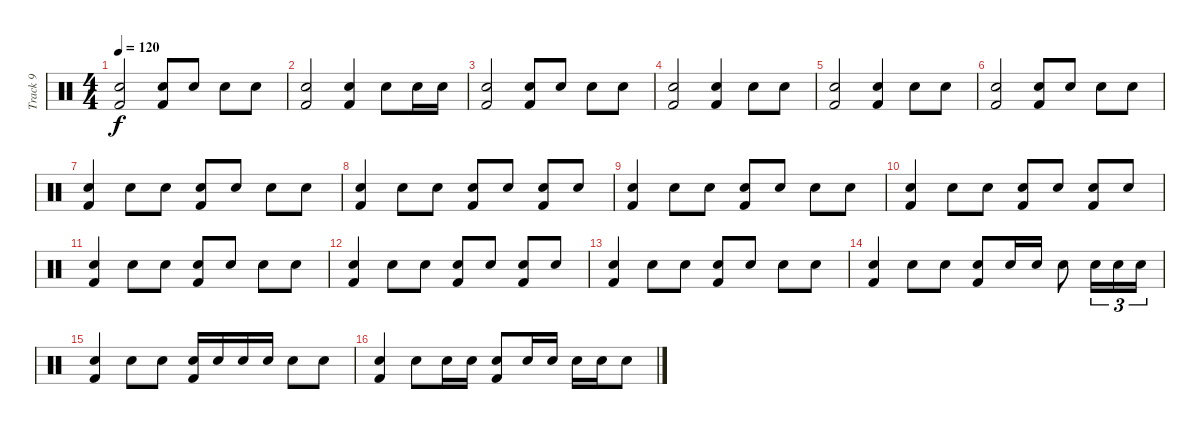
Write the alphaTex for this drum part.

\track ("Track 9" "Track 9") {instrument percussion}
\staff {score}
\articulation defaults
\ts (4 4)
\tempo 120
\clef neutral
\ks c
("Electric Snare (hit)" "Kick (hit) 2").2{dy f} ("Electric Snare (hit)" "Kick (hit) 2").8 "Electric Snare (hit)".8 "Electric Snare (hit)".8 "Electric Snare (hit)".8 |
("Electric Snare (hit)" "Kick (hit) 2").2 ("Electric Snare (hit)" "Kick (hit) 2").4 "Electric Snare (hit)".8 "Electric Snare (hit)".16 "Electric Snare (hit)".16 |
("Electric Snare (hit)" "Kick (hit) 2").2 ("Electric Snare (hit)" "Kick (hit) 2").8 "Electric Snare (hit)".8 "Electric Snare (hit)".8 "Electric Snare (hit)".8 |
("Electric Snare (hit)" "Kick (hit) 2").2 ("Electric Snare (hit)" "Kick (hit) 2").4 "Electric Snare (hit)".8 "Electric Snare (hit)".8 |
("Electric Snare (hit)" "Kick (hit) 2").2 ("Electric Snare (hit)" "Kick (hit) 2").4 "Electric Snare (hit)".8 "Electric Snare (hit)".8 |
("Electric Snare (hit)" "Kick (hit) 2").2 ("Electric Snare (hit)" "Kick (hit) 2").8 "Electric Snare (hit)".8 "Electric Snare (hit)".8 "Electric Snare (hit)".8 |
("Electric Snare (hit)" "Kick (hit) 2").4 "Electric Snare (hit)".8 "Electric Snare (hit)".8 ("Electric Snare (hit)" "Kick (hit) 2").8 "Electric Snare (hit)".8 "Electric Snare (hit)".8 "Electric Snare (hit)".8 |
("Electric Snare (hit)" "Kick (hit) 2").4 "Electric Snare (hit)".8 "Electric Snare (hit)".8 ("Electric Snare (hit)" "Kick (hit) 2").8 "Electric Snare (hit)".8 ("Electric Snare (hit)" "Kick (hit) 2").8 "Electric Snare (hit)".8 |
("Electric Snare (hit)" "Kick (hit) 2").4 "Electric Snare (hit)".8 "Electric Snare (hit)".8 ("Electric Snare (hit)" "Kick (hit) 2").8 "Electric Snare (hit)".8 "Electric Snare (hit)".8 "Electric Snare (hit)".8 |
("Electric Snare (hit)" "Kick (hit) 2").4 "Electric Snare (hit)".8 "Electric Snare (hit)".8 ("Electric Snare (hit)" "Kick (hit) 2").8 "Electric Snare (hit)".8 ("Electric Snare (hit)" "Kick (hit) 2").8 "Electric Snare (hit)".8 |
("Electric Snare (hit)" "Kick (hit) 2").4 "Electric Snare (hit)".8 "Electric Snare (hit)".8 ("Electric Snare (hit)" "Kick (hit) 2").8 "Electric Snare (hit)".8 "Electric Snare (hit)".8 "Electric Snare (hit)".8 |
("Electric Snare (hit)" "Kick (hit) 2").4 "Electric Snare (hit)".8 "Electric Snare (hit)".8 ("Electric Snare (hit)" "Kick (hit) 2").8 "Electric Snare (hit)".8 ("Electric Snare (hit)" "Kick (hit) 2").8 "Electric Snare (hit)".8 |
("Electric Snare (hit)" "Kick (hit) 2").4 "Electric Snare (hit)".8 "Electric Snare (hit)".8 ("Electric Snare (hit)" "Kick (hit) 2").8 "Electric Snare (hit)".8 "Electric Snare (hit)".8 "Electric Snare (hit)".8 |
("Electric Snare (hit)" "Kick (hit) 2").4 "Electric Snare (hit)".8 "Electric Snare (hit)".8 ("Electric Snare (hit)" "Kick (hit) 2").8 "Electric Snare (hit)".16 "Electric Snare (hit)".16 "Electric Snare (hit)".8 "Electric Snare (hit)".16{tu (3 2)} "Electric Snare (hit)".16{tu (3 2)} "Electric Snare (hit)".16{tu (3 2)} |
("Electric Snare (hit)" "Kick (hit) 2").4 "Electric Snare (hit)".8 "Electric Snare (hit)".8 ("Electric Snare (hit)" "Kick (hit) 2").16 "Electric Snare (hit)".16 "Electric Snare (hit)".16 "Electric Snare (hit)".16 "Electric Snare (hit)".8 "Electric Snare (hit)".8 |
("Electric Snare (hit)" "Kick (hit) 2").4 "Electric Snare (hit)".8 "Electric Snare (hit)".16 "Electric Snare (hit)".16 ("Electric Snare (hit)" "Kick (hit) 2").8 "Electric Snare (hit)".16 "Electric Snare (hit)".16 "Electric Snare (hit)".16 "Electric Snare (hit)".16 "Electric Snare (hit)".8
